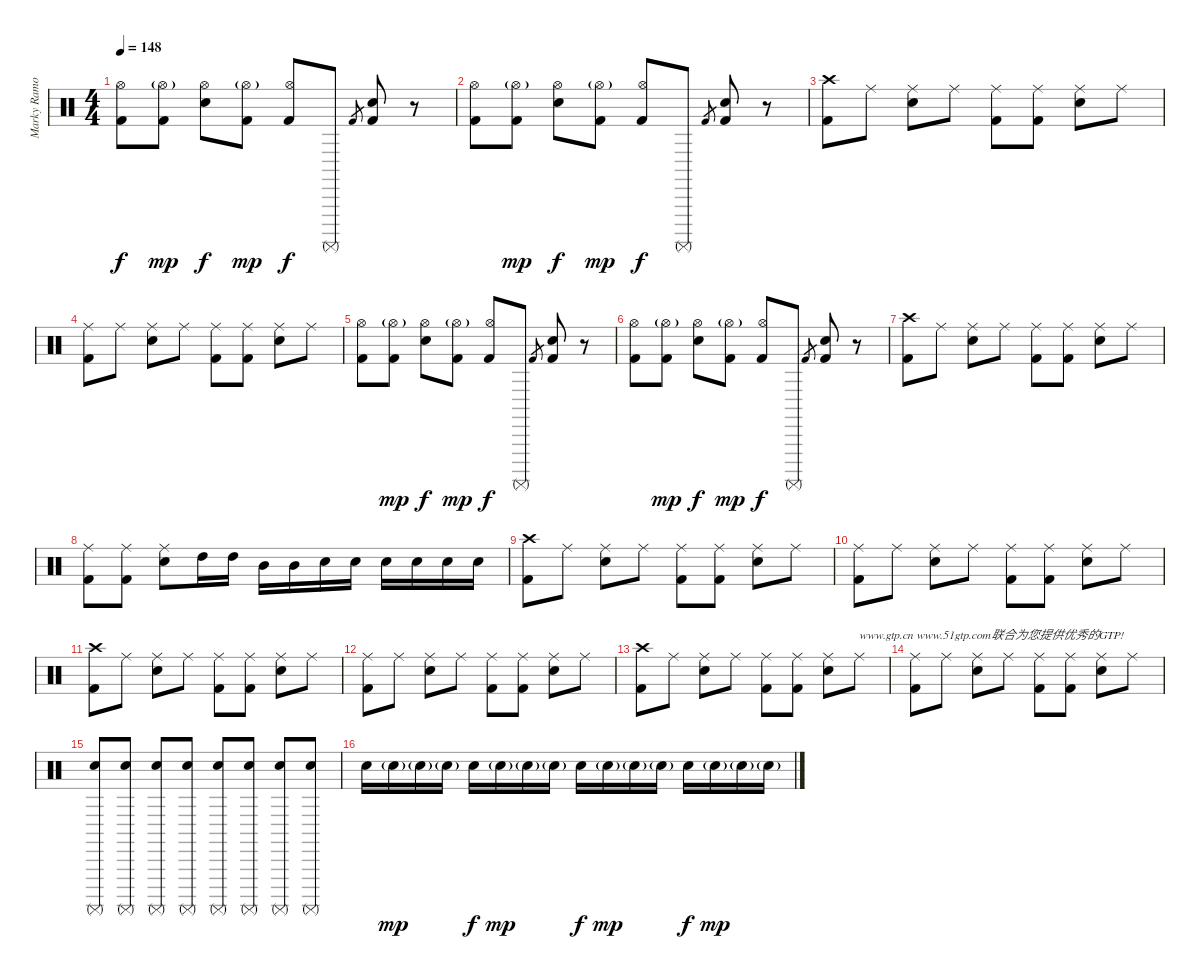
\track ("Marky Ramone" "Marky Ramo") {instrument percussion}
\staff {score}
\articulation defaults
\ts (4 4)
\tempo 148
\clef neutral
\ks c
("Hi-Hat (open)" "Kick (hit) 2").8{dy f} ("Hi-Hat (open)"{g} "Kick (hit) 2").8{dy mp} ("Hi-Hat (open)" "Electric Snare (hit)").8{dy f} ("Hi-Hat (open)"{g} "Kick (hit) 2").8{dy mp} ("Hi-Hat (open)" "Kick (hit) 2").8{dy f} "Surdo (mute)".8 "Kick (hit) 2".8{gr} ("Electric Snare (hit)" "Kick (hit) 2").8{bd 480} r.8 |
("Hi-Hat (open)" "Kick (hit) 2").8 ("Hi-Hat (open)"{g} "Kick (hit) 2").8{dy mp} ("Hi-Hat (open)" "Electric Snare (hit)").8{dy f} ("Hi-Hat (open)"{g} "Kick (hit) 2").8{dy mp} ("Hi-Hat (open)" "Kick (hit) 2").8{dy f} "Surdo (mute)".8 "Kick (hit) 2".8{gr} ("Electric Snare (hit)" "Kick (hit) 2").8{bd 480} r.8 |
("Crash high (hit)" "Kick (hit) 2").8 "Ride (middle)".8 ("Ride (middle)" "Electric Snare (hit)").8 "Ride (middle)".8 ("Ride (middle)" "Kick (hit) 2").8 ("Ride (middle)" "Kick (hit) 2").8 ("Ride (middle)" "Electric Snare (hit)").8 "Ride (middle)".8 |
("Ride (middle)" "Kick (hit) 2").8 "Ride (middle)".8 ("Ride (middle)" "Electric Snare (hit)").8 "Ride (middle)".8 ("Ride (middle)" "Kick (hit) 2").8 ("Ride (middle)" "Kick (hit) 2").8 ("Ride (middle)" "Electric Snare (hit)").8 "Ride (middle)".8 |
("Hi-Hat (open)" "Kick (hit) 2").8 ("Hi-Hat (open)"{g} "Kick (hit) 2").8{dy mp} ("Hi-Hat (open)" "Electric Snare (hit)").8{dy f} ("Hi-Hat (open)"{g} "Kick (hit) 2").8{dy mp} ("Hi-Hat (open)" "Kick (hit) 2").8{dy f} "Surdo (mute)".8 "Kick (hit) 2".8{gr} ("Electric Snare (hit)" "Kick (hit) 2").8{bd 480} r.8 |
("Hi-Hat (open)" "Kick (hit) 2").8 ("Hi-Hat (open)"{g} "Kick (hit) 2").8{dy mp} ("Hi-Hat (open)" "Electric Snare (hit)").8{dy f} ("Hi-Hat (open)"{g} "Kick (hit) 2").8{dy mp} ("Hi-Hat (open)" "Kick (hit) 2").8{dy f} "Surdo (mute)".8 "Kick (hit) 2".8{gr} ("Electric Snare (hit)" "Kick (hit) 2").8{bd 480} r.8 |
("Crash high (hit)" "Kick (hit) 2").8 "Ride (middle)".8 ("Ride (middle)" "Electric Snare (hit)").8 "Ride (middle)".8 ("Ride (middle)" "Kick (hit) 2").8 ("Ride (middle)" "Kick (hit) 2").8 ("Ride (middle)" "Electric Snare (hit)").8 "Ride (middle)".8 |
("Ride (middle)" "Kick (hit) 2").8 ("Ride (middle)" "Kick (hit) 2").8 ("Ride (middle)" "Electric Snare (hit)").8 "High Tom (hit)".16 "High Tom (hit)".16 "Mid Tom (hit)".16 "Mid Tom (hit)".16 "Electric Snare (hit)".16 "Electric Snare (hit)".16 "Electric Snare (hit)".16 "Electric Snare (hit)".16 "Electric Snare (hit)".16 "Electric Snare (hit)".16 |
("Crash high (hit)" "Kick (hit) 2").8 "Ride (middle)".8 ("Ride (middle)" "Electric Snare (hit)").8 "Ride (middle)".8 ("Ride (middle)" "Kick (hit) 2").8 ("Ride (middle)" "Kick (hit) 2").8 ("Ride (middle)" "Electric Snare (hit)").8 "Ride (middle)".8 |
("Ride (middle)" "Kick (hit) 2").8 "Ride (middle)".8 ("Ride (middle)" "Electric Snare (hit)").8 "Ride (middle)".8 ("Ride (middle)" "Kick (hit) 2").8 ("Ride (middle)" "Kick (hit) 2").8 ("Ride (middle)" "Electric Snare (hit)").8 "Ride (middle)".8 |
("Crash high (hit)" "Kick (hit) 2").8 "Ride (middle)".8 ("Ride (middle)" "Electric Snare (hit)").8 "Ride (middle)".8 ("Ride (middle)" "Kick (hit) 2").8 ("Ride (middle)" "Kick (hit) 2").8 ("Ride (middle)" "Electric Snare (hit)").8 "Ride (middle)".8 |
("Ride (middle)" "Kick (hit) 2").8 "Ride (middle)".8 ("Ride (middle)" "Electric Snare (hit)").8 "Ride (middle)".8 ("Ride (middle)" "Kick (hit) 2").8 ("Ride (middle)" "Kick (hit) 2").8 ("Ride (middle)" "Electric Snare (hit)").8 "Ride (middle)".8 |
("Crash high (hit)" "Kick (hit) 2").8 "Ride (middle)".8 ("Ride (middle)" "Electric Snare (hit)").8 "Ride (middle)".8 ("Ride (middle)" "Kick (hit) 2").8 ("Ride (middle)" "Kick (hit) 2").8 ("Ride (middle)" "Electric Snare (hit)").8 "Ride (middle)".8{txt "www.gtp.cn www.51gtp.com联合为您提供优秀的GTP!"} |
("Ride (middle)" "Kick (hit) 2").8 "Ride (middle)".8 ("Ride (middle)" "Electric Snare (hit)").8 "Ride (middle)".8 ("Ride (middle)" "Kick (hit) 2").8 ("Ride (middle)" "Kick (hit) 2").8 ("Ride (middle)" "Electric Snare (hit)").8 "Ride (middle)".8 |
("Surdo (mute)" "Electric Snare (hit)").8 ("Surdo (mute)" "Electric Snare (hit)").8 ("Surdo (mute)" "Electric Snare (hit)").8 ("Surdo (mute)" "Electric Snare (hit)").8 ("Surdo (mute)" "Electric Snare (hit)").8 ("Surdo (mute)" "Electric Snare (hit)").8 ("Surdo (mute)" "Electric Snare (hit)").8 ("Surdo (mute)" "Electric Snare (hit)").8 |
"Electric Snare (hit)".16 "Electric Snare (hit)"{g}.16{dy mp} "Electric Snare (hit)"{g}.16 "Electric Snare (hit)"{g}.16 "Electric Snare (hit)".16{dy f} "Electric Snare (hit)"{g}.16{dy mp} "Electric Snare (hit)"{g}.16 "Electric Snare (hit)"{g}.16 "Electric Snare (hit)".16{dy f} "Electric Snare (hit)"{g}.16{dy mp} "Electric Snare (hit)"{g}.16 "Electric Snare (hit)"{g}.16 "Electric Snare (hit)".16{dy f} "Electric Snare (hit)"{g}.16{dy mp} "Electric Snare (hit)"{g}.16 "Electric Snare (hit)"{g}.16
